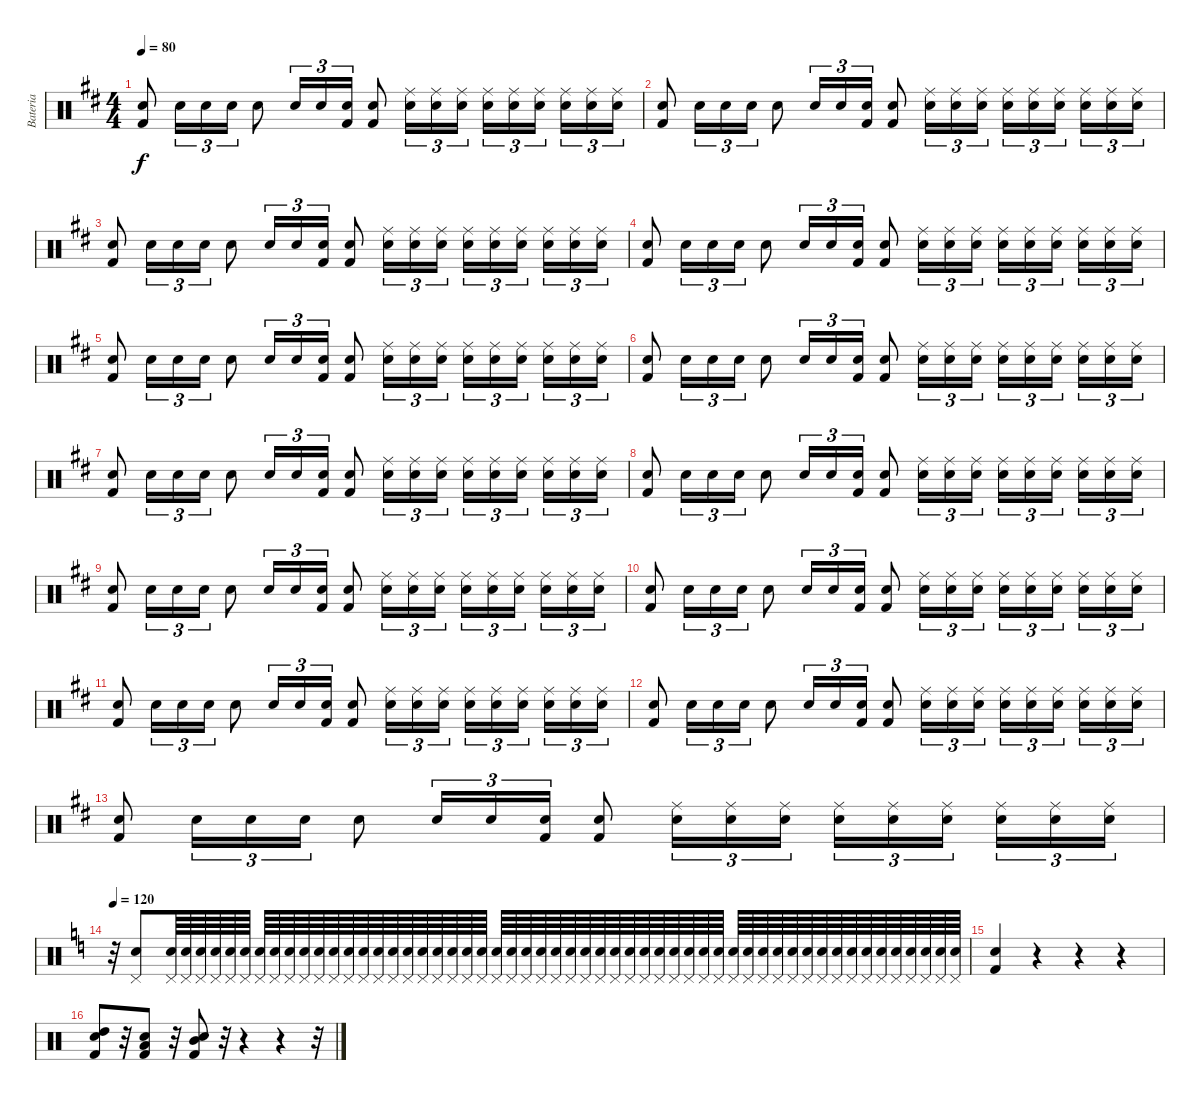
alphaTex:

\track ("Bateria" "Bateria") {instrument percussion}
\staff {score}
\articulation defaults
\ts (4 4)
\tempo 80
\clef neutral
\ks d
("Kick (hit) 2" "Electric Snare (hit)").8{dy f} "Electric Snare (hit)".16{tu (3 2)} "Electric Snare (hit)".16{tu (3 2)} "Electric Snare (hit)".16{tu (3 2)} "Electric Snare (hit)".8 "Electric Snare (hit)".16{tu (3 2)} "Electric Snare (hit)".16{tu (3 2)} ("Kick (hit) 2" "Electric Snare (hit)").16{tu (3 2)} ("Kick (hit) 2" "Electric Snare (hit)").8 ("Ride (middle)" "Electric Snare (hit)").16{tu (3 2)} ("Ride (middle)" "Electric Snare (hit)").16{tu (3 2)} ("Ride (middle)" "Electric Snare (hit)").16{tu (3 2)} ("Ride (middle)" "Electric Snare (hit)").16{tu (3 2)} ("Ride (middle)" "Electric Snare (hit)").16{tu (3 2)} ("Ride (middle)" "Electric Snare (hit)").16{tu (3 2) beam splitsecondary} ("Ride (middle)" "Electric Snare (hit)").16{tu (3 2)} ("Ride (middle)" "Electric Snare (hit)").16{tu (3 2)} ("Ride (middle)" "Electric Snare (hit)").16{tu (3 2)} |
("Kick (hit) 2" "Electric Snare (hit)").8 "Electric Snare (hit)".16{tu (3 2)} "Electric Snare (hit)".16{tu (3 2)} "Electric Snare (hit)".16{tu (3 2)} "Electric Snare (hit)".8 "Electric Snare (hit)".16{tu (3 2)} "Electric Snare (hit)".16{tu (3 2)} ("Kick (hit) 2" "Electric Snare (hit)").16{tu (3 2)} ("Kick (hit) 2" "Electric Snare (hit)").8 ("Ride (middle)" "Electric Snare (hit)").16{tu (3 2)} ("Ride (middle)" "Electric Snare (hit)").16{tu (3 2)} ("Ride (middle)" "Electric Snare (hit)").16{tu (3 2)} ("Ride (middle)" "Electric Snare (hit)").16{tu (3 2)} ("Ride (middle)" "Electric Snare (hit)").16{tu (3 2)} ("Ride (middle)" "Electric Snare (hit)").16{tu (3 2) beam splitsecondary} ("Ride (middle)" "Electric Snare (hit)").16{tu (3 2)} ("Ride (middle)" "Electric Snare (hit)").16{tu (3 2)} ("Ride (middle)" "Electric Snare (hit)").16{tu (3 2)} |
("Kick (hit) 2" "Electric Snare (hit)").8 "Electric Snare (hit)".16{tu (3 2)} "Electric Snare (hit)".16{tu (3 2)} "Electric Snare (hit)".16{tu (3 2)} "Electric Snare (hit)".8 "Electric Snare (hit)".16{tu (3 2)} "Electric Snare (hit)".16{tu (3 2)} ("Kick (hit) 2" "Electric Snare (hit)").16{tu (3 2)} ("Kick (hit) 2" "Electric Snare (hit)").8 ("Ride (middle)" "Electric Snare (hit)").16{tu (3 2)} ("Ride (middle)" "Electric Snare (hit)").16{tu (3 2)} ("Ride (middle)" "Electric Snare (hit)").16{tu (3 2)} ("Ride (middle)" "Electric Snare (hit)").16{tu (3 2)} ("Ride (middle)" "Electric Snare (hit)").16{tu (3 2)} ("Ride (middle)" "Electric Snare (hit)").16{tu (3 2) beam splitsecondary} ("Ride (middle)" "Electric Snare (hit)").16{tu (3 2)} ("Ride (middle)" "Electric Snare (hit)").16{tu (3 2)} ("Ride (middle)" "Electric Snare (hit)").16{tu (3 2)} |
("Kick (hit) 2" "Electric Snare (hit)").8 "Electric Snare (hit)".16{tu (3 2)} "Electric Snare (hit)".16{tu (3 2)} "Electric Snare (hit)".16{tu (3 2)} "Electric Snare (hit)".8 "Electric Snare (hit)".16{tu (3 2)} "Electric Snare (hit)".16{tu (3 2)} ("Kick (hit) 2" "Electric Snare (hit)").16{tu (3 2)} ("Kick (hit) 2" "Electric Snare (hit)").8 ("Ride (middle)" "Electric Snare (hit)").16{tu (3 2)} ("Ride (middle)" "Electric Snare (hit)").16{tu (3 2)} ("Ride (middle)" "Electric Snare (hit)").16{tu (3 2)} ("Ride (middle)" "Electric Snare (hit)").16{tu (3 2)} ("Ride (middle)" "Electric Snare (hit)").16{tu (3 2)} ("Ride (middle)" "Electric Snare (hit)").16{tu (3 2) beam splitsecondary} ("Ride (middle)" "Electric Snare (hit)").16{tu (3 2)} ("Ride (middle)" "Electric Snare (hit)").16{tu (3 2)} ("Ride (middle)" "Electric Snare (hit)").16{tu (3 2)} |
("Kick (hit) 2" "Electric Snare (hit)").8 "Electric Snare (hit)".16{tu (3 2)} "Electric Snare (hit)".16{tu (3 2)} "Electric Snare (hit)".16{tu (3 2)} "Electric Snare (hit)".8 "Electric Snare (hit)".16{tu (3 2)} "Electric Snare (hit)".16{tu (3 2)} ("Kick (hit) 2" "Electric Snare (hit)").16{tu (3 2)} ("Kick (hit) 2" "Electric Snare (hit)").8 ("Ride (middle)" "Electric Snare (hit)").16{tu (3 2)} ("Ride (middle)" "Electric Snare (hit)").16{tu (3 2)} ("Ride (middle)" "Electric Snare (hit)").16{tu (3 2)} ("Ride (middle)" "Electric Snare (hit)").16{tu (3 2)} ("Ride (middle)" "Electric Snare (hit)").16{tu (3 2)} ("Ride (middle)" "Electric Snare (hit)").16{tu (3 2) beam splitsecondary} ("Ride (middle)" "Electric Snare (hit)").16{tu (3 2)} ("Ride (middle)" "Electric Snare (hit)").16{tu (3 2)} ("Ride (middle)" "Electric Snare (hit)").16{tu (3 2)} |
("Kick (hit) 2" "Electric Snare (hit)").8 "Electric Snare (hit)".16{tu (3 2)} "Electric Snare (hit)".16{tu (3 2)} "Electric Snare (hit)".16{tu (3 2)} "Electric Snare (hit)".8 "Electric Snare (hit)".16{tu (3 2)} "Electric Snare (hit)".16{tu (3 2)} ("Kick (hit) 2" "Electric Snare (hit)").16{tu (3 2)} ("Kick (hit) 2" "Electric Snare (hit)").8 ("Ride (middle)" "Electric Snare (hit)").16{tu (3 2)} ("Ride (middle)" "Electric Snare (hit)").16{tu (3 2)} ("Ride (middle)" "Electric Snare (hit)").16{tu (3 2)} ("Ride (middle)" "Electric Snare (hit)").16{tu (3 2)} ("Ride (middle)" "Electric Snare (hit)").16{tu (3 2)} ("Ride (middle)" "Electric Snare (hit)").16{tu (3 2) beam splitsecondary} ("Ride (middle)" "Electric Snare (hit)").16{tu (3 2)} ("Ride (middle)" "Electric Snare (hit)").16{tu (3 2)} ("Ride (middle)" "Electric Snare (hit)").16{tu (3 2)} |
("Kick (hit) 2" "Electric Snare (hit)").8 "Electric Snare (hit)".16{tu (3 2)} "Electric Snare (hit)".16{tu (3 2)} "Electric Snare (hit)".16{tu (3 2)} "Electric Snare (hit)".8 "Electric Snare (hit)".16{tu (3 2)} "Electric Snare (hit)".16{tu (3 2)} ("Kick (hit) 2" "Electric Snare (hit)").16{tu (3 2)} ("Kick (hit) 2" "Electric Snare (hit)").8 ("Ride (middle)" "Electric Snare (hit)").16{tu (3 2)} ("Ride (middle)" "Electric Snare (hit)").16{tu (3 2)} ("Ride (middle)" "Electric Snare (hit)").16{tu (3 2)} ("Ride (middle)" "Electric Snare (hit)").16{tu (3 2)} ("Ride (middle)" "Electric Snare (hit)").16{tu (3 2)} ("Ride (middle)" "Electric Snare (hit)").16{tu (3 2) beam splitsecondary} ("Ride (middle)" "Electric Snare (hit)").16{tu (3 2)} ("Ride (middle)" "Electric Snare (hit)").16{tu (3 2)} ("Ride (middle)" "Electric Snare (hit)").16{tu (3 2)} |
("Kick (hit) 2" "Electric Snare (hit)").8 "Electric Snare (hit)".16{tu (3 2)} "Electric Snare (hit)".16{tu (3 2)} "Electric Snare (hit)".16{tu (3 2)} "Electric Snare (hit)".8 "Electric Snare (hit)".16{tu (3 2)} "Electric Snare (hit)".16{tu (3 2)} ("Kick (hit) 2" "Electric Snare (hit)").16{tu (3 2)} ("Kick (hit) 2" "Electric Snare (hit)").8 ("Ride (middle)" "Electric Snare (hit)").16{tu (3 2)} ("Ride (middle)" "Electric Snare (hit)").16{tu (3 2)} ("Ride (middle)" "Electric Snare (hit)").16{tu (3 2)} ("Ride (middle)" "Electric Snare (hit)").16{tu (3 2)} ("Ride (middle)" "Electric Snare (hit)").16{tu (3 2)} ("Ride (middle)" "Electric Snare (hit)").16{tu (3 2) beam splitsecondary} ("Ride (middle)" "Electric Snare (hit)").16{tu (3 2)} ("Ride (middle)" "Electric Snare (hit)").16{tu (3 2)} ("Ride (middle)" "Electric Snare (hit)").16{tu (3 2)} |
("Kick (hit) 2" "Electric Snare (hit)").8{volume 0} "Electric Snare (hit)".16{tu (3 2)} "Electric Snare (hit)".16{tu (3 2)} "Electric Snare (hit)".16{tu (3 2)} "Electric Snare (hit)".8 "Electric Snare (hit)".16{tu (3 2)} "Electric Snare (hit)".16{tu (3 2)} ("Kick (hit) 2" "Electric Snare (hit)").16{tu (3 2)} ("Kick (hit) 2" "Electric Snare (hit)").8 ("Ride (middle)" "Electric Snare (hit)").16{tu (3 2)} ("Ride (middle)" "Electric Snare (hit)").16{tu (3 2)} ("Ride (middle)" "Electric Snare (hit)").16{tu (3 2)} ("Ride (middle)" "Electric Snare (hit)").16{tu (3 2)} ("Ride (middle)" "Electric Snare (hit)").16{tu (3 2)} ("Ride (middle)" "Electric Snare (hit)").16{tu (3 2) beam splitsecondary} ("Ride (middle)" "Electric Snare (hit)").16{tu (3 2)} ("Ride (middle)" "Electric Snare (hit)").16{tu (3 2)} ("Ride (middle)" "Electric Snare (hit)").16{tu (3 2)} |
("Kick (hit) 2" "Electric Snare (hit)").8 "Electric Snare (hit)".16{tu (3 2)} "Electric Snare (hit)".16{tu (3 2)} "Electric Snare (hit)".16{tu (3 2)} "Electric Snare (hit)".8 "Electric Snare (hit)".16{tu (3 2)} "Electric Snare (hit)".16{tu (3 2)} ("Kick (hit) 2" "Electric Snare (hit)").16{tu (3 2)} ("Kick (hit) 2" "Electric Snare (hit)").8 ("Ride (middle)" "Electric Snare (hit)").16{tu (3 2)} ("Ride (middle)" "Electric Snare (hit)").16{tu (3 2)} ("Ride (middle)" "Electric Snare (hit)").16{tu (3 2)} ("Ride (middle)" "Electric Snare (hit)").16{tu (3 2)} ("Ride (middle)" "Electric Snare (hit)").16{tu (3 2)} ("Ride (middle)" "Electric Snare (hit)").16{tu (3 2) beam splitsecondary} ("Ride (middle)" "Electric Snare (hit)").16{tu (3 2)} ("Ride (middle)" "Electric Snare (hit)").16{tu (3 2)} ("Ride (middle)" "Electric Snare (hit)").16{tu (3 2)} |
("Kick (hit) 2" "Electric Snare (hit)").8 "Electric Snare (hit)".16{tu (3 2)} "Electric Snare (hit)".16{tu (3 2)} "Electric Snare (hit)".16{tu (3 2)} "Electric Snare (hit)".8 "Electric Snare (hit)".16{tu (3 2)} "Electric Snare (hit)".16{tu (3 2)} ("Kick (hit) 2" "Electric Snare (hit)").16{tu (3 2)} ("Kick (hit) 2" "Electric Snare (hit)").8 ("Ride (middle)" "Electric Snare (hit)").16{tu (3 2)} ("Ride (middle)" "Electric Snare (hit)").16{tu (3 2)} ("Ride (middle)" "Electric Snare (hit)").16{tu (3 2)} ("Ride (middle)" "Electric Snare (hit)").16{tu (3 2)} ("Ride (middle)" "Electric Snare (hit)").16{tu (3 2)} ("Ride (middle)" "Electric Snare (hit)").16{tu (3 2) beam splitsecondary} ("Ride (middle)" "Electric Snare (hit)").16{tu (3 2)} ("Ride (middle)" "Electric Snare (hit)").16{tu (3 2)} ("Ride (middle)" "Electric Snare (hit)").16{tu (3 2)} |
("Kick (hit) 2" "Electric Snare (hit)").8 "Electric Snare (hit)".16{tu (3 2)} "Electric Snare (hit)".16{tu (3 2)} "Electric Snare (hit)".16{tu (3 2)} "Electric Snare (hit)".8 "Electric Snare (hit)".16{tu (3 2)} "Electric Snare (hit)".16{tu (3 2)} ("Kick (hit) 2" "Electric Snare (hit)").16{tu (3 2)} ("Kick (hit) 2" "Electric Snare (hit)").8 ("Ride (middle)" "Electric Snare (hit)").16{tu (3 2)} ("Ride (middle)" "Electric Snare (hit)").16{tu (3 2)} ("Ride (middle)" "Electric Snare (hit)").16{tu (3 2)} ("Ride (middle)" "Electric Snare (hit)").16{tu (3 2)} ("Ride (middle)" "Electric Snare (hit)").16{tu (3 2)} ("Ride (middle)" "Electric Snare (hit)").16{tu (3 2) beam splitsecondary} ("Ride (middle)" "Electric Snare (hit)").16{tu (3 2)} ("Ride (middle)" "Electric Snare (hit)").16{tu (3 2)} ("Ride (middle)" "Electric Snare (hit)").16{tu (3 2)} |
("Kick (hit) 2" "Electric Snare (hit)").8 "Electric Snare (hit)".16{tu (3 2)} "Electric Snare (hit)".16{tu (3 2)} "Electric Snare (hit)".16{tu (3 2)} "Electric Snare (hit)".8 "Electric Snare (hit)".16{tu (3 2)} "Electric Snare (hit)".16{tu (3 2)} ("Kick (hit) 2" "Electric Snare (hit)").16{tu (3 2)} ("Kick (hit) 2" "Electric Snare (hit)").8 ("Ride (middle)" "Electric Snare (hit)").16{tu (3 2)} ("Ride (middle)" "Electric Snare (hit)").16{tu (3 2)} ("Ride (middle)" "Electric Snare (hit)").16{tu (3 2)} ("Ride (middle)" "Electric Snare (hit)").16{tu (3 2)} ("Ride (middle)" "Electric Snare (hit)").16{tu (3 2)} ("Ride (middle)" "Electric Snare (hit)").16{tu (3 2) beam splitsecondary} ("Ride (middle)" "Electric Snare (hit)").16{tu (3 2)} ("Ride (middle)" "Electric Snare (hit)").16{tu (3 2)} ("Ride (middle)" "Electric Snare (hit)").16{tu (3 2)} |
\tempo 120
\ks c
r.32 ("Pedal Hi-Hat (hit)" "Snare (hit) 2").8{volume 12 balance 5} ("Pedal Hi-Hat (hit)" "Snare (hit) 2").64 ("Pedal Hi-Hat (hit)" "Snare (hit) 2").64 ("Pedal Hi-Hat (hit)" "Snare (hit) 2").64 ("Pedal Hi-Hat (hit)" "Snare (hit) 2").64 ("Pedal Hi-Hat (hit)" "Snare (hit) 2").64 ("Pedal Hi-Hat (hit)" "Snare (hit) 2").64 ("Pedal Hi-Hat (hit)" "Snare (hit) 2").64 ("Pedal Hi-Hat (hit)" "Snare (hit) 2").64 ("Pedal Hi-Hat (hit)" "Snare (hit) 2").64 ("Pedal Hi-Hat (hit)" "Snare (hit) 2").64 ("Pedal Hi-Hat (hit)" "Snare (hit) 2").64 ("Pedal Hi-Hat (hit)" "Snare (hit) 2").64 ("Pedal Hi-Hat (hit)" "Snare (hit) 2").64 ("Pedal Hi-Hat (hit)" "Snare (hit) 2").64 ("Pedal Hi-Hat (hit)" "Snare (hit) 2").64 ("Pedal Hi-Hat (hit)" "Snare (hit) 2").64 ("Pedal Hi-Hat (hit)" "Snare (hit) 2").64 ("Pedal Hi-Hat (hit)" "Snare (hit) 2").64 ("Pedal Hi-Hat (hit)" "Snare (hit) 2").64 ("Pedal Hi-Hat (hit)" "Snare (hit) 2").64 ("Pedal Hi-Hat (hit)" "Snare (hit) 2").64 ("Pedal Hi-Hat (hit)" "Snare (hit) 2").64 ("Pedal Hi-Hat (hit)" "Snare (hit) 2").64 ("Pedal Hi-Hat (hit)" "Snare (hit) 2").64 ("Pedal Hi-Hat (hit)" "Snare (hit) 2").64 ("Pedal Hi-Hat (hit)" "Snare (hit) 2").64 ("Pedal Hi-Hat (hit)" "Snare (hit) 2").64 ("Pedal Hi-Hat (hit)" "Snare (hit) 2").64 ("Pedal Hi-Hat (hit)" "Snare (hit) 2").64 ("Pedal Hi-Hat (hit)" "Snare (hit) 2").64 ("Pedal Hi-Hat (hit)" "Snare (hit) 2").64 ("Pedal Hi-Hat (hit)" "Snare (hit) 2").64 ("Pedal Hi-Hat (hit)" "Snare (hit) 2").64 ("Pedal Hi-Hat (hit)" "Snare (hit) 2").64 ("Pedal Hi-Hat (hit)" "Snare (hit) 2").64 ("Pedal Hi-Hat (hit)" "Snare (hit) 2").64 ("Pedal Hi-Hat (hit)" "Snare (hit) 2").64 ("Pedal Hi-Hat (hit)" "Snare (hit) 2").64 ("Pedal Hi-Hat (hit)" "Snare (hit) 2").64 ("Pedal Hi-Hat (hit)" "Snare (hit) 2").64 ("Pedal Hi-Hat (hit)" "Snare (hit) 2").64 ("Pedal Hi-Hat (hit)" "Snare (hit) 2").64 ("Pedal Hi-Hat (hit)" "Snare (hit) 2").64 ("Pedal Hi-Hat (hit)" "Snare (hit) 2").64 ("Pedal Hi-Hat (hit)" "Snare (hit) 2").64 ("Pedal Hi-Hat (hit)" "Snare (hit) 2").64 ("Pedal Hi-Hat (hit)" "Snare (hit) 2").64 ("Pedal Hi-Hat (hit)" "Snare (hit) 2").64 ("Pedal Hi-Hat (hit)" "Snare (hit) 2").64 ("Pedal Hi-Hat (hit)" "Snare (hit) 2").64 ("Pedal Hi-Hat (hit)" "Snare (hit) 2").64 ("Pedal Hi-Hat (hit)" "Snare (hit) 2").64 ("Pedal Hi-Hat (hit)" "Snare (hit) 2").64 ("Pedal Hi-Hat (hit)" "Snare (hit) 2").64 |
("Snare (hit) 2" "Kick (hit) 2").4 r.4 r.4 r.4 |
("Snare (hit) 2" "High Tom (hit)" "Kick (hit) 2").8 r.32 ("Snare (hit) 2" "Low Tom (hit)" "Kick (hit) 2").8 r.32 ("Snare (hit) 2" "Mid Tom (hit)" "Kick (hit) 2").8 r.32 r.4 r.4 r.32
